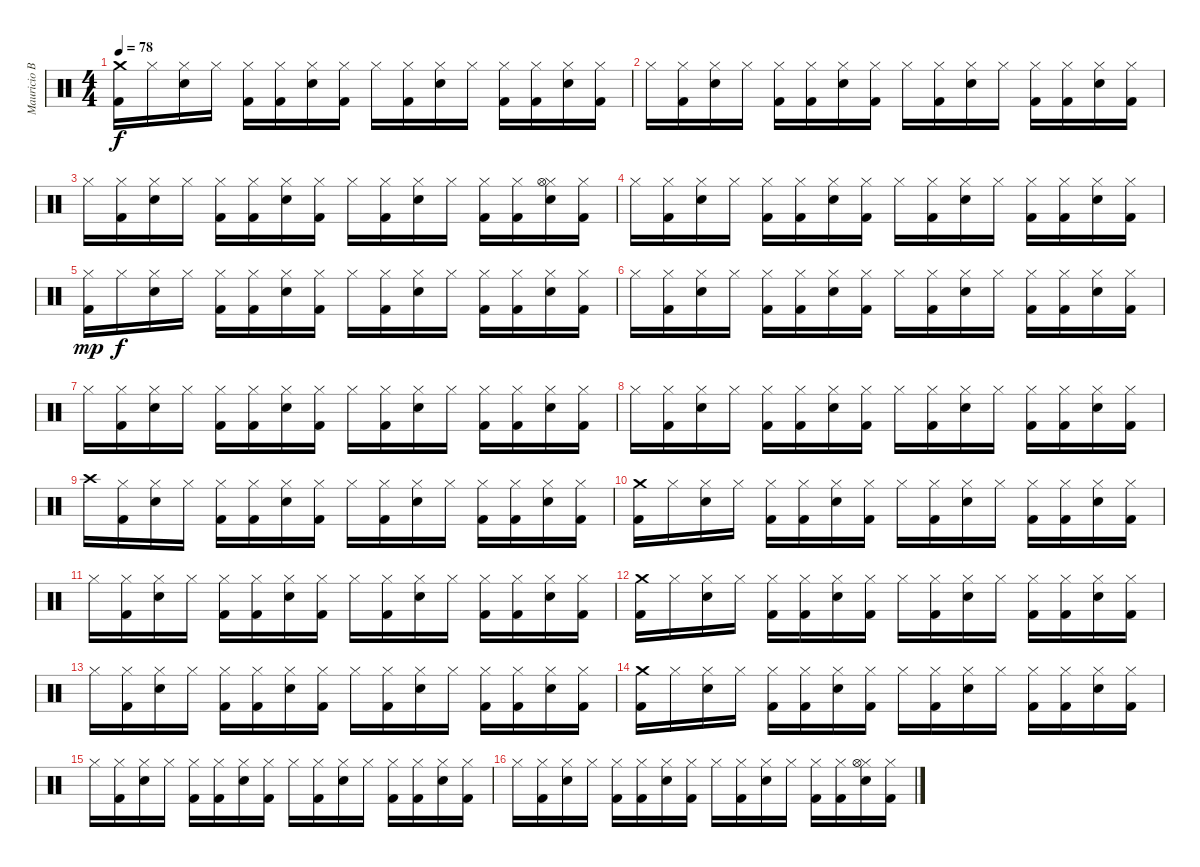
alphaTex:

\track ("Mauricio Basualto" "Mauricio B") {instrument percussion}
\staff {score}
\articulation defaults
\ts (4 4)
\tempo 78
\clef neutral
\ks c
("Crash medium (hit)" "Kick (hit) 2").16{dy f} "Hi-Hat (closed)".16 ("Hi-Hat (closed)" "Snare (hit) 2").16 "Hi-Hat (closed)".16 ("Hi-Hat (closed)" "Kick (hit) 2").16 ("Hi-Hat (closed)" "Kick (hit) 2").16 ("Hi-Hat (closed)" "Snare (hit) 2").16 ("Hi-Hat (closed)" "Kick (hit) 2").16 "Hi-Hat (closed)".16 ("Hi-Hat (closed)" "Kick (hit) 2").16 ("Hi-Hat (closed)" "Snare (hit) 2").16 "Hi-Hat (closed)".16 ("Hi-Hat (closed)" "Kick (hit) 2").16 ("Hi-Hat (closed)" "Kick (hit) 2").16 ("Hi-Hat (closed)" "Snare (hit) 2").16 ("Hi-Hat (closed)" "Kick (hit) 2").16 |
"Hi-Hat (closed)".16 ("Hi-Hat (closed)" "Kick (hit) 2").16 ("Hi-Hat (closed)" "Snare (hit) 2").16 "Hi-Hat (closed)".16 ("Hi-Hat (closed)" "Kick (hit) 2").16 ("Hi-Hat (closed)" "Kick (hit) 2").16 ("Hi-Hat (closed)" "Snare (hit) 2").16 ("Hi-Hat (closed)" "Kick (hit) 2").16 "Hi-Hat (closed)".16 ("Hi-Hat (closed)" "Kick (hit) 2").16 ("Hi-Hat (closed)" "Snare (hit) 2").16 "Hi-Hat (closed)".16 ("Hi-Hat (closed)" "Kick (hit) 2").16 ("Hi-Hat (closed)" "Kick (hit) 2").16 ("Hi-Hat (closed)" "Snare (hit) 2").16 ("Hi-Hat (closed)" "Kick (hit) 2").16 |
"Hi-Hat (closed)".16 ("Hi-Hat (closed)" "Kick (hit) 2").16 ("Hi-Hat (closed)" "Snare (hit) 2").16 "Hi-Hat (closed)".16 ("Hi-Hat (closed)" "Kick (hit) 2").16 ("Hi-Hat (closed)" "Kick (hit) 2").16 ("Hi-Hat (closed)" "Snare (hit) 2").16 ("Hi-Hat (closed)" "Kick (hit) 2").16 "Hi-Hat (closed)".16 ("Hi-Hat (closed)" "Kick (hit) 2").16 ("Hi-Hat (closed)" "Snare (hit) 2").16 "Hi-Hat (closed)".16 ("Hi-Hat (closed)" "Kick (hit) 2").16 ("Hi-Hat (closed)" "Kick (hit) 2").16 ("Hi-Hat (closed)" "Hi-Hat (open)" "Snare (hit) 2").16 ("Hi-Hat (closed)" "Kick (hit) 2").16 |
"Hi-Hat (closed)".16 ("Hi-Hat (closed)" "Kick (hit) 2").16 ("Hi-Hat (closed)" "Snare (hit) 2").16 "Hi-Hat (closed)".16 ("Hi-Hat (closed)" "Kick (hit) 2").16 ("Hi-Hat (closed)" "Kick (hit) 2").16 ("Hi-Hat (closed)" "Snare (hit) 2").16 ("Hi-Hat (closed)" "Kick (hit) 2").16 "Hi-Hat (closed)".16 ("Hi-Hat (closed)" "Kick (hit) 2").16 ("Hi-Hat (closed)" "Snare (hit) 2").16 "Hi-Hat (closed)".16 ("Hi-Hat (closed)" "Kick (hit) 2").16 ("Hi-Hat (closed)" "Kick (hit) 2").16 ("Hi-Hat (closed)" "Snare (hit) 2").16 ("Hi-Hat (closed)" "Kick (hit) 2").16 |
("Hi-Hat (closed)" "Kick (hit) 2").16{dy mp} "Hi-Hat (closed)".16{dy f} ("Hi-Hat (closed)" "Snare (hit) 2").16 "Hi-Hat (closed)".16 ("Hi-Hat (closed)" "Kick (hit) 2").16 ("Hi-Hat (closed)" "Kick (hit) 2").16 ("Hi-Hat (closed)" "Snare (hit) 2").16 ("Hi-Hat (closed)" "Kick (hit) 2").16 "Hi-Hat (closed)".16 ("Hi-Hat (closed)" "Kick (hit) 2").16 ("Hi-Hat (closed)" "Snare (hit) 2").16 "Hi-Hat (closed)".16 ("Hi-Hat (closed)" "Kick (hit) 2").16 ("Hi-Hat (closed)" "Kick (hit) 2").16 ("Hi-Hat (closed)" "Snare (hit) 2").16 ("Hi-Hat (closed)" "Kick (hit) 2").16 |
"Hi-Hat (closed)".16 ("Hi-Hat (closed)" "Kick (hit) 2").16 ("Hi-Hat (closed)" "Snare (hit) 2").16 "Hi-Hat (closed)".16 ("Hi-Hat (closed)" "Kick (hit) 2").16 ("Hi-Hat (closed)" "Kick (hit) 2").16 ("Hi-Hat (closed)" "Snare (hit) 2").16 ("Hi-Hat (closed)" "Kick (hit) 2").16 "Hi-Hat (closed)".16 ("Hi-Hat (closed)" "Kick (hit) 2").16 ("Hi-Hat (closed)" "Snare (hit) 2").16 "Hi-Hat (closed)".16 ("Hi-Hat (closed)" "Kick (hit) 2").16 ("Hi-Hat (closed)" "Kick (hit) 2").16 ("Hi-Hat (closed)" "Snare (hit) 2").16 ("Hi-Hat (closed)" "Kick (hit) 2").16 |
"Hi-Hat (closed)".16 ("Hi-Hat (closed)" "Kick (hit) 2").16 ("Hi-Hat (closed)" "Snare (hit) 2").16 "Hi-Hat (closed)".16 ("Hi-Hat (closed)" "Kick (hit) 2").16 ("Hi-Hat (closed)" "Kick (hit) 2").16 ("Hi-Hat (closed)" "Snare (hit) 2").16 ("Hi-Hat (closed)" "Kick (hit) 2").16 "Hi-Hat (closed)".16 ("Hi-Hat (closed)" "Kick (hit) 2").16 ("Hi-Hat (closed)" "Snare (hit) 2").16 "Hi-Hat (closed)".16 ("Hi-Hat (closed)" "Kick (hit) 2").16 ("Hi-Hat (closed)" "Kick (hit) 2").16 ("Hi-Hat (closed)" "Snare (hit) 2").16 ("Hi-Hat (closed)" "Kick (hit) 2").16 |
"Hi-Hat (closed)".16 ("Hi-Hat (closed)" "Kick (hit) 2").16 ("Hi-Hat (closed)" "Snare (hit) 2").16 "Hi-Hat (closed)".16 ("Hi-Hat (closed)" "Kick (hit) 2").16 ("Hi-Hat (closed)" "Kick (hit) 2").16 ("Hi-Hat (closed)" "Snare (hit) 2").16 ("Hi-Hat (closed)" "Kick (hit) 2").16 "Hi-Hat (closed)".16 ("Hi-Hat (closed)" "Kick (hit) 2").16 ("Hi-Hat (closed)" "Snare (hit) 2").16 "Hi-Hat (closed)".16 ("Hi-Hat (closed)" "Kick (hit) 2").16 ("Hi-Hat (closed)" "Kick (hit) 2").16 ("Hi-Hat (closed)" "Snare (hit) 2").16 ("Hi-Hat (closed)" "Kick (hit) 2").16 |
"Crash high (hit)".16 ("Hi-Hat (closed)" "Kick (hit) 2").16 ("Hi-Hat (closed)" "Snare (hit) 2").16 "Hi-Hat (closed)".16 ("Hi-Hat (closed)" "Kick (hit) 2").16 ("Hi-Hat (closed)" "Kick (hit) 2").16 ("Hi-Hat (closed)" "Snare (hit) 2").16 ("Hi-Hat (closed)" "Kick (hit) 2").16 "Hi-Hat (closed)".16 ("Hi-Hat (closed)" "Kick (hit) 2").16 ("Hi-Hat (closed)" "Snare (hit) 2").16 "Hi-Hat (closed)".16 ("Hi-Hat (closed)" "Kick (hit) 2").16 ("Hi-Hat (closed)" "Kick (hit) 2").16 ("Hi-Hat (closed)" "Snare (hit) 2").16 ("Hi-Hat (closed)" "Kick (hit) 2").16 |
("Crash medium (hit)" "Kick (hit) 2").16 "Hi-Hat (closed)".16 ("Hi-Hat (closed)" "Snare (hit) 2").16 "Hi-Hat (closed)".16 ("Hi-Hat (closed)" "Kick (hit) 2").16 ("Hi-Hat (closed)" "Kick (hit) 2").16 ("Hi-Hat (closed)" "Snare (hit) 2").16 ("Hi-Hat (closed)" "Kick (hit) 2").16 "Hi-Hat (closed)".16 ("Hi-Hat (closed)" "Kick (hit) 2").16 ("Hi-Hat (closed)" "Snare (hit) 2").16 "Hi-Hat (closed)".16 ("Hi-Hat (closed)" "Kick (hit) 2").16 ("Hi-Hat (closed)" "Kick (hit) 2").16 ("Hi-Hat (closed)" "Snare (hit) 2").16 ("Hi-Hat (closed)" "Kick (hit) 2").16 |
"Hi-Hat (closed)".16 ("Hi-Hat (closed)" "Kick (hit) 2").16 ("Hi-Hat (closed)" "Snare (hit) 2").16 "Hi-Hat (closed)".16 ("Hi-Hat (closed)" "Kick (hit) 2").16 ("Hi-Hat (closed)" "Kick (hit) 2").16 ("Hi-Hat (closed)" "Snare (hit) 2").16 ("Hi-Hat (closed)" "Kick (hit) 2").16 "Hi-Hat (closed)".16 ("Hi-Hat (closed)" "Kick (hit) 2").16 ("Hi-Hat (closed)" "Snare (hit) 2").16 "Hi-Hat (closed)".16 ("Hi-Hat (closed)" "Kick (hit) 2").16 ("Hi-Hat (closed)" "Kick (hit) 2").16 ("Hi-Hat (closed)" "Snare (hit) 2").16 ("Hi-Hat (closed)" "Kick (hit) 2").16 |
("Crash medium (hit)" "Kick (hit) 2").16 "Hi-Hat (closed)".16 ("Hi-Hat (closed)" "Snare (hit) 2").16 "Hi-Hat (closed)".16 ("Hi-Hat (closed)" "Kick (hit) 2").16 ("Hi-Hat (closed)" "Kick (hit) 2").16 ("Hi-Hat (closed)" "Snare (hit) 2").16 ("Hi-Hat (closed)" "Kick (hit) 2").16 "Hi-Hat (closed)".16 ("Hi-Hat (closed)" "Kick (hit) 2").16 ("Hi-Hat (closed)" "Snare (hit) 2").16 "Hi-Hat (closed)".16 ("Hi-Hat (closed)" "Kick (hit) 2").16 ("Hi-Hat (closed)" "Kick (hit) 2").16 ("Hi-Hat (closed)" "Snare (hit) 2").16 ("Hi-Hat (closed)" "Kick (hit) 2").16 |
"Hi-Hat (closed)".16 ("Hi-Hat (closed)" "Kick (hit) 2").16 ("Hi-Hat (closed)" "Snare (hit) 2").16 "Hi-Hat (closed)".16 ("Hi-Hat (closed)" "Kick (hit) 2").16 ("Hi-Hat (closed)" "Kick (hit) 2").16 ("Hi-Hat (closed)" "Snare (hit) 2").16 ("Hi-Hat (closed)" "Kick (hit) 2").16 "Hi-Hat (closed)".16 ("Hi-Hat (closed)" "Kick (hit) 2").16 ("Hi-Hat (closed)" "Snare (hit) 2").16 "Hi-Hat (closed)".16 ("Hi-Hat (closed)" "Kick (hit) 2").16 ("Hi-Hat (closed)" "Kick (hit) 2").16 ("Hi-Hat (closed)" "Snare (hit) 2").16 ("Hi-Hat (closed)" "Kick (hit) 2").16 |
("Crash medium (hit)" "Kick (hit) 2").16 "Hi-Hat (closed)".16 ("Hi-Hat (closed)" "Snare (hit) 2").16 "Hi-Hat (closed)".16 ("Hi-Hat (closed)" "Kick (hit) 2").16 ("Hi-Hat (closed)" "Kick (hit) 2").16 ("Hi-Hat (closed)" "Snare (hit) 2").16 ("Hi-Hat (closed)" "Kick (hit) 2").16 "Hi-Hat (closed)".16 ("Hi-Hat (closed)" "Kick (hit) 2").16 ("Hi-Hat (closed)" "Snare (hit) 2").16 "Hi-Hat (closed)".16 ("Hi-Hat (closed)" "Kick (hit) 2").16 ("Hi-Hat (closed)" "Kick (hit) 2").16 ("Hi-Hat (closed)" "Snare (hit) 2").16 ("Hi-Hat (closed)" "Kick (hit) 2").16 |
"Hi-Hat (closed)".16 ("Hi-Hat (closed)" "Kick (hit) 2").16 ("Hi-Hat (closed)" "Snare (hit) 2").16 "Hi-Hat (closed)".16 ("Hi-Hat (closed)" "Kick (hit) 2").16 ("Hi-Hat (closed)" "Kick (hit) 2").16 ("Hi-Hat (closed)" "Snare (hit) 2").16 ("Hi-Hat (closed)" "Kick (hit) 2").16 "Hi-Hat (closed)".16 ("Hi-Hat (closed)" "Kick (hit) 2").16 ("Hi-Hat (closed)" "Snare (hit) 2").16 "Hi-Hat (closed)".16 ("Hi-Hat (closed)" "Kick (hit) 2").16 ("Hi-Hat (closed)" "Kick (hit) 2").16 ("Hi-Hat (closed)" "Snare (hit) 2").16 ("Hi-Hat (closed)" "Kick (hit) 2").16 |
"Hi-Hat (closed)".16 ("Hi-Hat (closed)" "Kick (hit) 2").16 ("Hi-Hat (closed)" "Snare (hit) 2").16 "Hi-Hat (closed)".16 ("Hi-Hat (closed)" "Kick (hit) 2").16 ("Hi-Hat (closed)" "Kick (hit) 2").16 ("Hi-Hat (closed)" "Snare (hit) 2").16 ("Hi-Hat (closed)" "Kick (hit) 2").16 "Hi-Hat (closed)".16 ("Hi-Hat (closed)" "Kick (hit) 2").16 ("Hi-Hat (closed)" "Snare (hit) 2").16 "Hi-Hat (closed)".16 ("Hi-Hat (closed)" "Kick (hit) 2").16 ("Hi-Hat (closed)" "Kick (hit) 2").16 ("Hi-Hat (closed)" "Hi-Hat (open)" "Snare (hit) 2").16 ("Hi-Hat (closed)" "Kick (hit) 2").16
